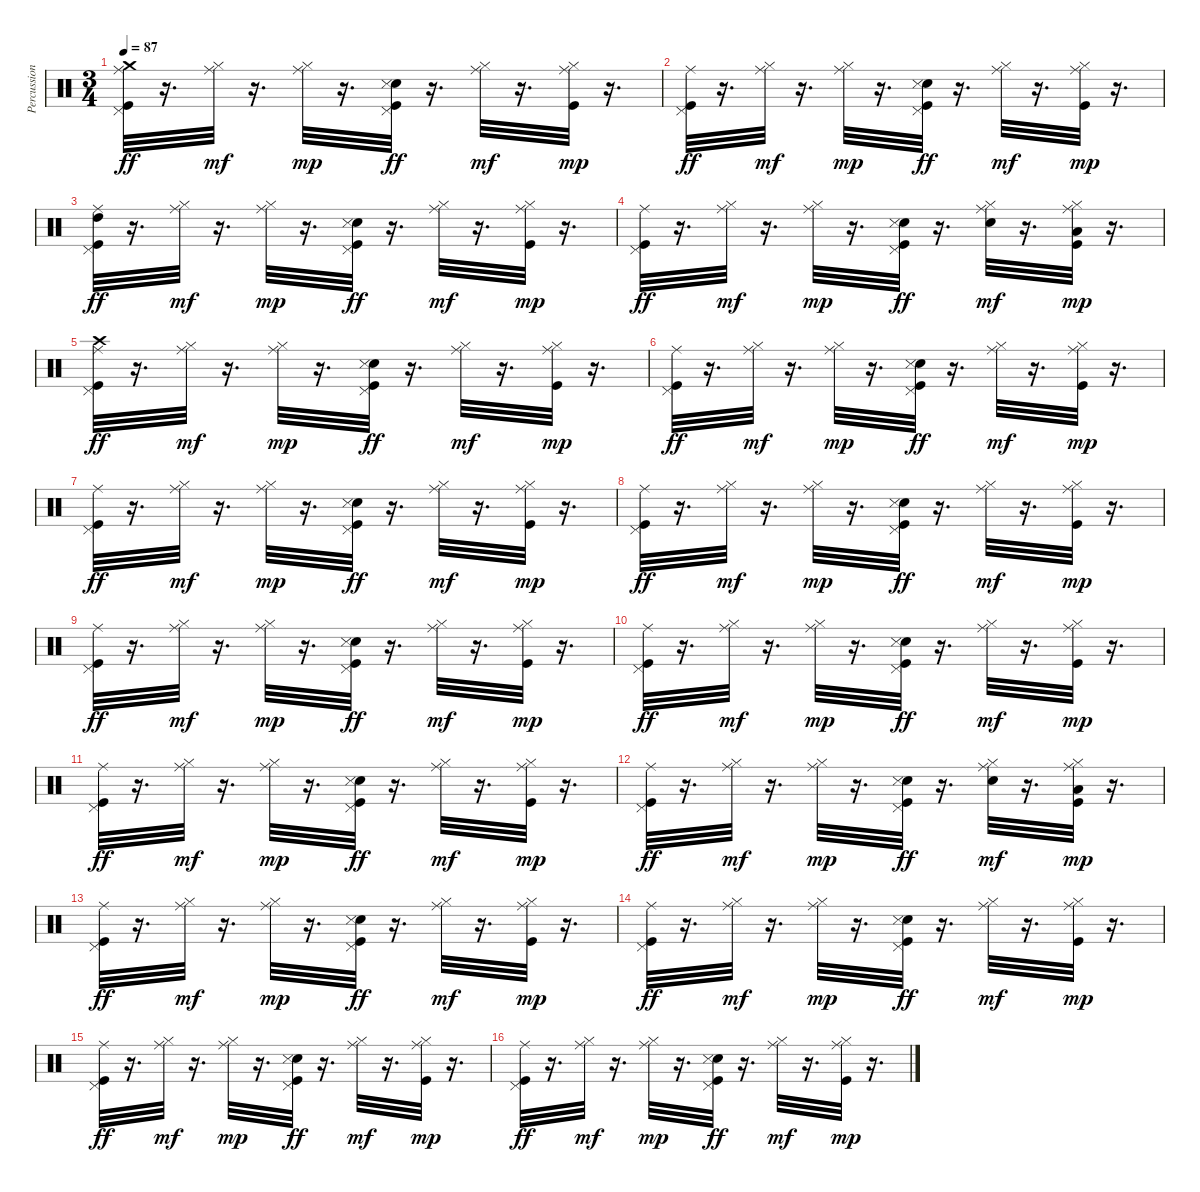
\track ("Percussion" "Percussion") {instrument percussion}
\staff {score}
\articulation defaults
\ts (3 4)
\tempo 87
\clef neutral
\ks c
("Kick (hit)" "Ride (middle)" "Pedal Hi-Hat (hit)" "Crash medium (hit)").32{dy ff} r.16{d} ("Hi-Hat (closed)" "Ride (middle)").32{dy mf} r.16{d} ("Hi-Hat (closed)" "Ride (middle)").32{dy mp} r.16{d} ("Kick (hit)" "Pedal Hi-Hat (hit)" "Electric Snare (hit)" "Snare (side stick) 3").32{dy ff} r.16{d} ("Hi-Hat (closed)" "Ride (middle)").32{dy mf} r.16{d} ("Hi-Hat (closed)" "Ride (middle)" "Kick (hit)").32{dy mp} r.16{d} |
("Kick (hit)" "Ride (middle)" "Pedal Hi-Hat (hit)").32{dy ff} r.16{d} ("Hi-Hat (closed)" "Ride (middle)").32{dy mf} r.16{d} ("Hi-Hat (closed)" "Ride (middle)").32{dy mp} r.16{d} ("Kick (hit)" "Pedal Hi-Hat (hit)" "Electric Snare (hit)" "Snare (side stick) 3").32{dy ff} r.16{d} ("Hi-Hat (closed)" "Ride (middle)").32{dy mf} r.16{d} ("Hi-Hat (closed)" "Ride (middle)" "Kick (hit)").32{dy mp} r.16{d} |
("Kick (hit)" "Ride (middle)" "Pedal Hi-Hat (hit)" "High Tom (hit)").32{dy ff} r.16{d} ("Hi-Hat (closed)" "Ride (middle)").32{dy mf} r.16{d} ("Hi-Hat (closed)" "Ride (middle)").32{dy mp} r.16{d} ("Kick (hit)" "Pedal Hi-Hat (hit)" "Electric Snare (hit)" "Snare (side stick) 3").32{dy ff} r.16{d} ("Hi-Hat (closed)" "Ride (middle)").32{dy mf} r.16{d} ("Hi-Hat (closed)" "Ride (middle)" "Kick (hit)").32{dy mp} r.16{d} |
("Kick (hit)" "Ride (middle)" "Pedal Hi-Hat (hit)").32{dy ff} r.16{d} ("Hi-Hat (closed)" "Ride (middle)").32{dy mf} r.16{d} ("Hi-Hat (closed)" "Ride (middle)").32{dy mp} r.16{d} ("Kick (hit)" "Pedal Hi-Hat (hit)" "Electric Snare (hit)" "Snare (side stick) 3").32{dy ff} r.16{d} ("Hi-Hat (closed)" "Ride (middle)" "Snare (hit) 2").32{dy mf} r.16{d} ("Hi-Hat (closed)" "Ride (middle)" "Low Tom (hit)" "Kick (hit)").32{dy mp} r.16{d} |
("Kick (hit)" "Ride (middle)" "Pedal Hi-Hat (hit)" "Crash high (hit)").32{dy ff} r.16{d} ("Hi-Hat (closed)" "Ride (middle)").32{dy mf} r.16{d} ("Hi-Hat (closed)" "Ride (middle)").32{dy mp} r.16{d} ("Kick (hit)" "Pedal Hi-Hat (hit)" "Electric Snare (hit)" "Snare (side stick) 3").32{dy ff} r.16{d} ("Hi-Hat (closed)" "Ride (middle)").32{dy mf} r.16{d} ("Hi-Hat (closed)" "Ride (middle)" "Kick (hit)").32{dy mp} r.16{d} |
("Kick (hit)" "Ride (middle)" "Pedal Hi-Hat (hit)").32{dy ff} r.16{d} ("Hi-Hat (closed)" "Ride (middle)").32{dy mf} r.16{d} ("Hi-Hat (closed)" "Ride (middle)").32{dy mp} r.16{d} ("Kick (hit)" "Pedal Hi-Hat (hit)" "Electric Snare (hit)" "Snare (side stick) 3").32{dy ff} r.16{d} ("Hi-Hat (closed)" "Ride (middle)").32{dy mf} r.16{d} ("Hi-Hat (closed)" "Ride (middle)" "Kick (hit)").32{dy mp} r.16{d} |
("Kick (hit)" "Ride (middle)" "Pedal Hi-Hat (hit)").32{dy ff} r.16{d} ("Hi-Hat (closed)" "Ride (middle)").32{dy mf} r.16{d} ("Hi-Hat (closed)" "Ride (middle)").32{dy mp} r.16{d} ("Kick (hit)" "Pedal Hi-Hat (hit)" "Electric Snare (hit)" "Snare (side stick) 3").32{dy ff} r.16{d} ("Hi-Hat (closed)" "Ride (middle)").32{dy mf} r.16{d} ("Hi-Hat (closed)" "Ride (middle)" "Kick (hit)").32{dy mp} r.16{d} |
("Kick (hit)" "Ride (middle)" "Pedal Hi-Hat (hit)").32{dy ff} r.16{d} ("Hi-Hat (closed)" "Ride (middle)").32{dy mf} r.16{d} ("Hi-Hat (closed)" "Ride (middle)").32{dy mp} r.16{d} ("Kick (hit)" "Pedal Hi-Hat (hit)" "Electric Snare (hit)" "Snare (side stick) 3").32{dy ff} r.16{d} ("Hi-Hat (closed)" "Ride (middle)").32{dy mf} r.16{d} ("Hi-Hat (closed)" "Ride (middle)" "Kick (hit)").32{dy mp} r.16{d} |
("Kick (hit)" "Ride (middle)" "Pedal Hi-Hat (hit)").32{dy ff} r.16{d} ("Hi-Hat (closed)" "Ride (middle)").32{dy mf} r.16{d} ("Hi-Hat (closed)" "Ride (middle)").32{dy mp} r.16{d} ("Kick (hit)" "Pedal Hi-Hat (hit)" "Electric Snare (hit)" "Snare (side stick) 3").32{dy ff} r.16{d} ("Hi-Hat (closed)" "Ride (middle)").32{dy mf} r.16{d} ("Hi-Hat (closed)" "Ride (middle)" "Kick (hit)").32{dy mp} r.16{d} |
("Kick (hit)" "Ride (middle)" "Pedal Hi-Hat (hit)").32{dy ff} r.16{d} ("Hi-Hat (closed)" "Ride (middle)").32{dy mf} r.16{d} ("Hi-Hat (closed)" "Ride (middle)").32{dy mp} r.16{d} ("Kick (hit)" "Pedal Hi-Hat (hit)" "Electric Snare (hit)" "Snare (side stick) 3").32{dy ff} r.16{d} ("Hi-Hat (closed)" "Ride (middle)").32{dy mf} r.16{d} ("Hi-Hat (closed)" "Ride (middle)" "Kick (hit)").32{dy mp} r.16{d} |
("Kick (hit)" "Ride (middle)" "Pedal Hi-Hat (hit)").32{dy ff} r.16{d} ("Hi-Hat (closed)" "Ride (middle)").32{dy mf} r.16{d} ("Hi-Hat (closed)" "Ride (middle)").32{dy mp} r.16{d} ("Kick (hit)" "Pedal Hi-Hat (hit)" "Electric Snare (hit)" "Snare (side stick) 3").32{dy ff} r.16{d} ("Hi-Hat (closed)" "Ride (middle)").32{dy mf} r.16{d} ("Hi-Hat (closed)" "Ride (middle)" "Kick (hit)").32{dy mp} r.16{d} |
("Kick (hit)" "Ride (middle)" "Pedal Hi-Hat (hit)").32{dy ff} r.16{d} ("Hi-Hat (closed)" "Ride (middle)").32{dy mf} r.16{d} ("Hi-Hat (closed)" "Ride (middle)").32{dy mp} r.16{d} ("Kick (hit)" "Pedal Hi-Hat (hit)" "Electric Snare (hit)" "Snare (side stick) 3").32{dy ff} r.16{d} ("Hi-Hat (closed)" "Ride (middle)" "Snare (hit) 2").32{dy mf} r.16{d} ("Hi-Hat (closed)" "Ride (middle)" "Low Tom (hit)" "Kick (hit)").32{dy mp} r.16{d} |
("Kick (hit)" "Ride (middle)" "Pedal Hi-Hat (hit)").32{dy ff} r.16{d} ("Hi-Hat (closed)" "Ride (middle)").32{dy mf} r.16{d} ("Hi-Hat (closed)" "Ride (middle)").32{dy mp} r.16{d} ("Kick (hit)" "Pedal Hi-Hat (hit)" "Electric Snare (hit)" "Snare (side stick) 3").32{dy ff} r.16{d} ("Hi-Hat (closed)" "Ride (middle)").32{dy mf} r.16{d} ("Hi-Hat (closed)" "Ride (middle)" "Kick (hit)").32{dy mp} r.16{d} |
("Kick (hit)" "Ride (middle)" "Pedal Hi-Hat (hit)").32{dy ff} r.16{d} ("Hi-Hat (closed)" "Ride (middle)").32{dy mf} r.16{d} ("Hi-Hat (closed)" "Ride (middle)").32{dy mp} r.16{d} ("Kick (hit)" "Pedal Hi-Hat (hit)" "Electric Snare (hit)" "Snare (side stick) 3").32{dy ff} r.16{d} ("Hi-Hat (closed)" "Ride (middle)").32{dy mf} r.16{d} ("Hi-Hat (closed)" "Ride (middle)" "Kick (hit)").32{dy mp} r.16{d} |
("Kick (hit)" "Ride (middle)" "Pedal Hi-Hat (hit)").32{dy ff} r.16{d} ("Hi-Hat (closed)" "Ride (middle)").32{dy mf} r.16{d} ("Hi-Hat (closed)" "Ride (middle)").32{dy mp} r.16{d} ("Kick (hit)" "Pedal Hi-Hat (hit)" "Electric Snare (hit)" "Snare (side stick) 3").32{dy ff} r.16{d} ("Hi-Hat (closed)" "Ride (middle)").32{dy mf} r.16{d} ("Hi-Hat (closed)" "Ride (middle)" "Kick (hit)").32{dy mp} r.16{d} |
("Kick (hit)" "Ride (middle)" "Pedal Hi-Hat (hit)").32{dy ff} r.16{d} ("Hi-Hat (closed)" "Ride (middle)").32{dy mf} r.16{d} ("Hi-Hat (closed)" "Ride (middle)").32{dy mp} r.16{d} ("Kick (hit)" "Pedal Hi-Hat (hit)" "Snare (hit) 2" "Snare (side stick) 3").32{dy ff} r.16{d} ("Hi-Hat (closed)" "Ride (middle)").32{dy mf} r.16{d} ("Hi-Hat (closed)" "Ride (middle)" "Kick (hit)").32{dy mp} r.16{d}
